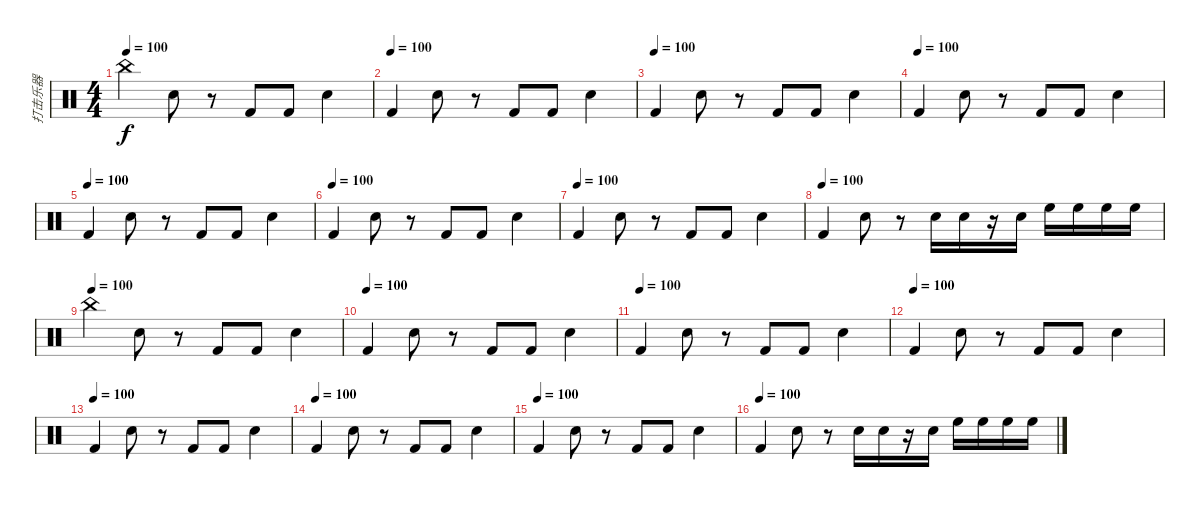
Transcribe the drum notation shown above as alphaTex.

\track ("打击乐器" "打击乐器") {instrument percussion}
\staff {score}
\articulation defaults
\ts (4 4)
\tempo 100
\clef neutral
\ks c "China (hit)".4{dy f} "Snare (hit) 2".8
r.8 "Kick (hit) 2".8 "Kick (hit) 2".8 "Snare (hit) 2".4 |
\tempo (100)
"Kick (hit) 2".4 "Snare (hit) 2".8 r.8 "Kick (hit) 2".8 "Kick (hit) 2".8 "Snare (hit) 2".4 |
\tempo (100)
"Kick (hit) 2".4 "Snare (hit) 2".8 r.8 "Kick (hit) 2".8 "Kick (hit) 2".8 "Snare (hit) 2".4 |
\tempo (100)
"Kick (hit) 2".4 "Snare (hit) 2".8 r.8 "Kick (hit) 2".8 "Kick (hit) 2".8 "Snare (hit) 2".4 |
\tempo (100)
"Kick (hit) 2".4 "Snare (hit) 2".8 r.8 "Kick (hit) 2".8 "Kick (hit) 2".8 "Snare (hit) 2".4 |
\tempo (100)
"Kick (hit) 2".4 "Snare (hit) 2".8 r.8 "Kick (hit) 2".8 "Kick (hit) 2".8 "Snare (hit) 2".4 |
\tempo (100)
"Kick (hit) 2".4 "Snare (hit) 2".8 r.8 "Kick (hit) 2".8 "Kick (hit) 2".8 "Snare (hit) 2".4 |
\tempo (100)
"Kick (hit) 2".4 "Snare (hit) 2".8 r.8 "Snare (hit) 2".16 "Snare (hit) 2".16 r.16 "Snare (hit) 2".16 "High Floor Tom (hit)".16 "High Floor Tom (hit)".16 "High Floor Tom (hit)".16 "High Floor Tom (hit)".16 |
\tempo (100)
"China (hit)".4{volume 6} "Snare (hit) 2".8 r.8 "Kick (hit) 2".8 "Kick (hit) 2".8 "Snare (hit) 2".4 |
\tempo (100)
"Kick (hit) 2".4 "Snare (hit) 2".8 r.8 "Kick (hit) 2".8 "Kick (hit) 2".8 "Snare (hit) 2".4 |
\tempo (100)
"Kick (hit) 2".4 "Snare (hit) 2".8 r.8 "Kick (hit) 2".8 "Kick (hit) 2".8 "Snare (hit) 2".4 |
\tempo (100)
"Kick (hit) 2".4 "Snare (hit) 2".8 r.8 "Kick (hit) 2".8 "Kick (hit) 2".8 "Snare (hit) 2".4 |
\tempo (100)
"Kick (hit) 2".4 "Snare (hit) 2".8 r.8 "Kick (hit) 2".8 "Kick (hit) 2".8 "Snare (hit) 2".4 |
\tempo (100)
"Kick (hit) 2".4 "Snare (hit) 2".8 r.8 "Kick (hit) 2".8 "Kick (hit) 2".8 "Snare (hit) 2".4 |
\tempo (100)
"Kick (hit) 2".4 "Snare (hit) 2".8 r.8 "Kick (hit) 2".8 "Kick (hit) 2".8 "Snare (hit) 2".4 |
\tempo (100)
"Kick (hit) 2".4 "Snare (hit) 2".8 r.8 "Snare (hit) 2".16 "Snare (hit) 2".16 r.16 "Snare (hit) 2".16 "High Floor Tom (hit)".16 "High Floor Tom (hit)".16 "High Floor Tom (hit)".16 "High Floor Tom (hit)".16
